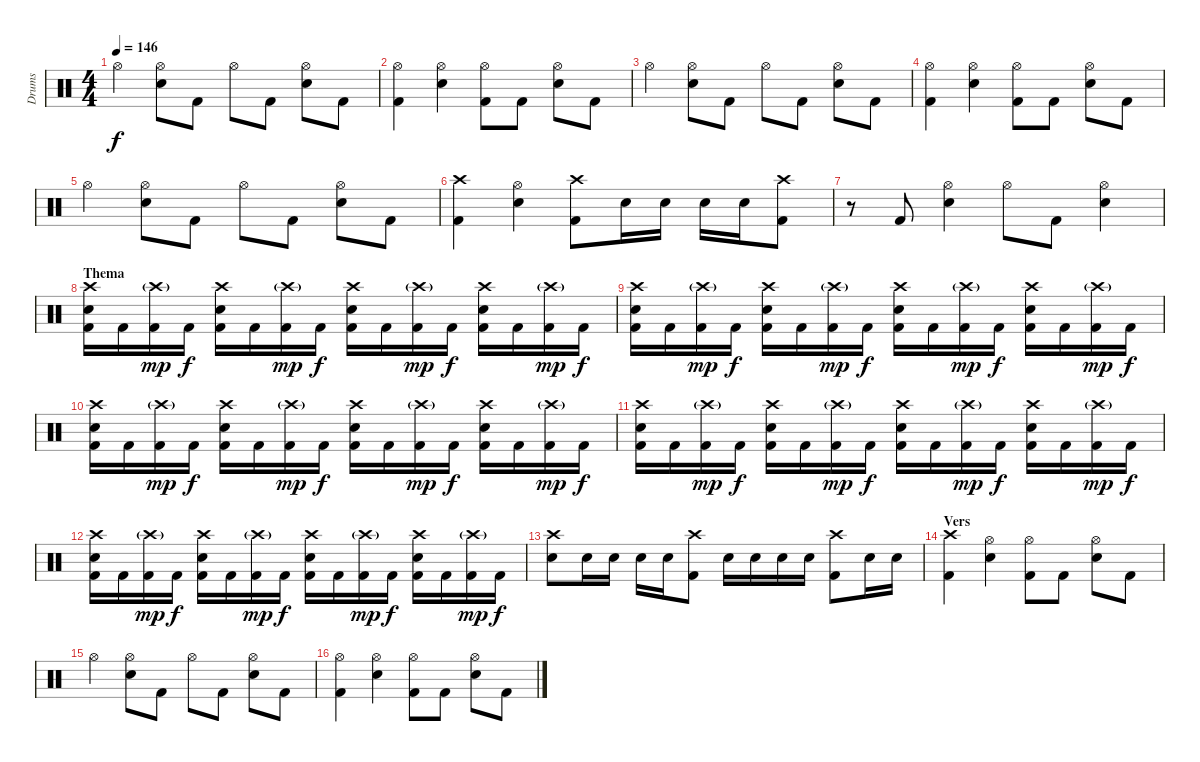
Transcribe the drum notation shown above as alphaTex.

\track ("Drums" "Drums") {instrument percussion}
\staff {score}
\articulation defaults
\ts (4 4)
\tempo 146
\clef neutral
\ks c "Hi-Hat (open)".4{dy f}
("Hi-Hat (open)" "Electric Snare (hit)").8 "Kick (hit) 2".8 "Hi-Hat (open)".8 "Kick (hit) 2".8 ("Hi-Hat (open)" "Electric Snare (hit)").8 "Kick (hit) 2".8 |
("Hi-Hat (open)" "Kick (hit) 2").4 ("Hi-Hat (open)" "Electric Snare (hit)").4 ("Hi-Hat (open)" "Kick (hit) 2").8 "Kick (hit) 2".8 ("Hi-Hat (open)" "Electric Snare (hit)").8 "Kick (hit) 2".8 |
"Hi-Hat (open)".4 ("Hi-Hat (open)" "Electric Snare (hit)").8 "Kick (hit) 2".8 "Hi-Hat (open)".8 "Kick (hit) 2".8 ("Hi-Hat (open)" "Electric Snare (hit)").8 "Kick (hit) 2".8 |
("Hi-Hat (open)" "Kick (hit) 2").4 ("Hi-Hat (open)" "Electric Snare (hit)").4 ("Hi-Hat (open)" "Kick (hit) 2").8 "Kick (hit) 2".8 ("Hi-Hat (open)" "Electric Snare (hit)").8 "Kick (hit) 2".8 |
"Hi-Hat (open)".4 ("Hi-Hat (open)" "Electric Snare (hit)").8 "Kick (hit) 2".8 "Hi-Hat (open)".8 "Kick (hit) 2".8 ("Hi-Hat (open)" "Electric Snare (hit)").8 "Kick (hit) 2".8 |
("Crash high (hit)" "Kick (hit) 2").4 ("Hi-Hat (open)" "Electric Snare (hit)").4 ("Crash high (hit)" "Kick (hit) 2").8 "Electric Snare (hit)".16 "Electric Snare (hit)".16 "Electric Snare (hit)".16 "Electric Snare (hit)".16 ("Crash high (hit)" "Kick (hit) 2").8 |
r.8 "Kick (hit) 2".8 ("Hi-Hat (open)" "Electric Snare (hit)").4 "Hi-Hat (open)".8 "Kick (hit) 2".8 ("Hi-Hat (open)" "Electric Snare (hit)").4 |
\section ("" "Thema")
("Crash high (hit)" "Electric Snare (hit)" "Kick (hit) 2").16 "Kick (hit) 2".16 ("Crash high (hit)"{g} "Kick (hit) 2").16{dy mp} "Kick (hit) 2".16{dy f} ("Crash high (hit)" "Electric Snare (hit)" "Kick (hit) 2").16 "Kick (hit) 2".16 ("Crash high (hit)"{g} "Kick (hit) 2").16{dy mp} "Kick (hit) 2".16{dy f} ("Crash high (hit)" "Electric Snare (hit)" "Kick (hit) 2").16 "Kick (hit) 2".16 ("Crash high (hit)"{g} "Kick (hit) 2").16{dy mp} "Kick (hit) 2".16{dy f} ("Crash high (hit)" "Electric Snare (hit)" "Kick (hit) 2").16 "Kick (hit) 2".16 ("Crash high (hit)"{g} "Kick (hit) 2").16{dy mp} "Kick (hit) 2".16{dy f} |
("Crash high (hit)" "Electric Snare (hit)" "Kick (hit) 2").16 "Kick (hit) 2".16 ("Crash high (hit)"{g} "Kick (hit) 2").16{dy mp} "Kick (hit) 2".16{dy f} ("Crash high (hit)" "Electric Snare (hit)" "Kick (hit) 2").16 "Kick (hit) 2".16 ("Crash high (hit)"{g} "Kick (hit) 2").16{dy mp} "Kick (hit) 2".16{dy f} ("Crash high (hit)" "Electric Snare (hit)" "Kick (hit) 2").16 "Kick (hit) 2".16 ("Crash high (hit)"{g} "Kick (hit) 2").16{dy mp} "Kick (hit) 2".16{dy f} ("Crash high (hit)" "Electric Snare (hit)" "Kick (hit) 2").16 "Kick (hit) 2".16 ("Crash high (hit)"{g} "Kick (hit) 2").16{dy mp} "Kick (hit) 2".16{dy f} |
("Crash high (hit)" "Electric Snare (hit)" "Kick (hit) 2").16 "Kick (hit) 2".16 ("Crash high (hit)"{g} "Kick (hit) 2").16{dy mp} "Kick (hit) 2".16{dy f} ("Crash high (hit)" "Electric Snare (hit)" "Kick (hit) 2").16 "Kick (hit) 2".16 ("Crash high (hit)"{g} "Kick (hit) 2").16{dy mp} "Kick (hit) 2".16{dy f} ("Crash high (hit)" "Electric Snare (hit)" "Kick (hit) 2").16 "Kick (hit) 2".16 ("Crash high (hit)"{g} "Kick (hit) 2").16{dy mp} "Kick (hit) 2".16{dy f} ("Crash high (hit)" "Electric Snare (hit)" "Kick (hit) 2").16 "Kick (hit) 2".16 ("Crash high (hit)"{g} "Kick (hit) 2").16{dy mp} "Kick (hit) 2".16{dy f} |
("Crash high (hit)" "Electric Snare (hit)" "Kick (hit) 2").16 "Kick (hit) 2".16 ("Crash high (hit)"{g} "Kick (hit) 2").16{dy mp} "Kick (hit) 2".16{dy f} ("Crash high (hit)" "Electric Snare (hit)" "Kick (hit) 2").16 "Kick (hit) 2".16 ("Crash high (hit)"{g} "Kick (hit) 2").16{dy mp} "Kick (hit) 2".16{dy f} ("Crash high (hit)" "Electric Snare (hit)" "Kick (hit) 2").16 "Kick (hit) 2".16 ("Crash high (hit)"{g} "Kick (hit) 2").16{dy mp} "Kick (hit) 2".16{dy f} ("Crash high (hit)" "Electric Snare (hit)" "Kick (hit) 2").16 "Kick (hit) 2".16 ("Crash high (hit)"{g} "Kick (hit) 2").16{dy mp} "Kick (hit) 2".16{dy f} |
("Crash high (hit)" "Electric Snare (hit)" "Kick (hit) 2").16 "Kick (hit) 2".16 ("Crash high (hit)"{g} "Kick (hit) 2").16{dy mp} "Kick (hit) 2".16{dy f} ("Crash high (hit)" "Electric Snare (hit)" "Kick (hit) 2").16 "Kick (hit) 2".16 ("Crash high (hit)"{g} "Kick (hit) 2").16{dy mp} "Kick (hit) 2".16{dy f} ("Crash high (hit)" "Electric Snare (hit)" "Kick (hit) 2").16 "Kick (hit) 2".16 ("Crash high (hit)"{g} "Kick (hit) 2").16{dy mp} "Kick (hit) 2".16{dy f} ("Crash high (hit)" "Electric Snare (hit)" "Kick (hit) 2").16 "Kick (hit) 2".16 ("Crash high (hit)"{g} "Kick (hit) 2").16{dy mp} "Kick (hit) 2".16{dy f} |
("Crash high (hit)" "Electric Snare (hit)").8 "Electric Snare (hit)".16 "Electric Snare (hit)".16 "Electric Snare (hit)".16 "Electric Snare (hit)".16 ("Crash high (hit)" "Kick (hit) 2").8 "Electric Snare (hit)".16 "Electric Snare (hit)".16 "Electric Snare (hit)".16 "Electric Snare (hit)".16 ("Crash high (hit)" "Kick (hit) 2").8 "Electric Snare (hit)".16 "Electric Snare (hit)".16 |
\section ("" "Vers")
("Crash high (hit)" "Kick (hit) 2").4 ("Hi-Hat (open)" "Electric Snare (hit)").4 ("Hi-Hat (open)" "Kick (hit) 2").8 "Kick (hit) 2".8 ("Hi-Hat (open)" "Electric Snare (hit)").8 "Kick (hit) 2".8 |
"Hi-Hat (open)".4 ("Hi-Hat (open)" "Electric Snare (hit)").8 "Kick (hit) 2".8 "Hi-Hat (open)".8 "Kick (hit) 2".8 ("Hi-Hat (open)" "Electric Snare (hit)").8 "Kick (hit) 2".8 |
("Hi-Hat (open)" "Kick (hit) 2").4 ("Hi-Hat (open)" "Electric Snare (hit)").4 ("Hi-Hat (open)" "Kick (hit) 2").8 "Kick (hit) 2".8 ("Hi-Hat (open)" "Electric Snare (hit)").8 "Kick (hit) 2".8
